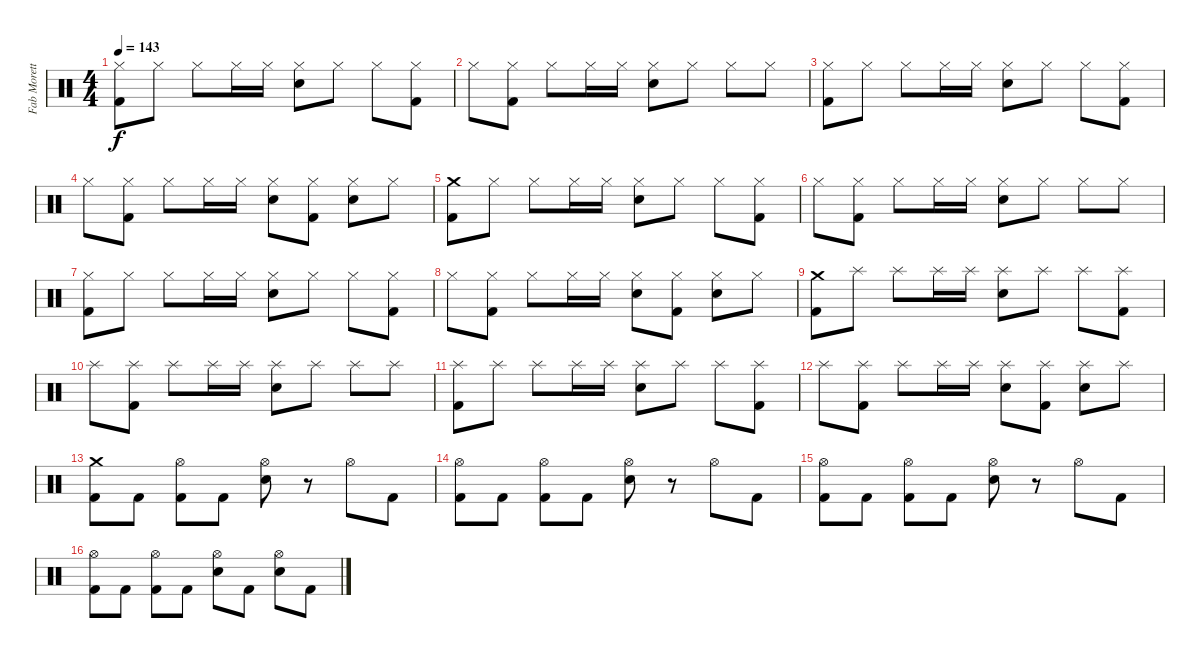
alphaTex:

\track ("Fab Moretti" "Fab Morett") {instrument percussion}
\staff {score}
\articulation defaults
\ts (4 4)
\tempo 143
\clef neutral
\ks c
("Hi-Hat (closed)" "Kick (hit) 2").8{dy f} "Hi-Hat (closed)".8 "Hi-Hat (closed)".8 "Hi-Hat (closed)".16 "Hi-Hat (closed)".16 ("Hi-Hat (closed)" "Electric Snare (hit)").8 "Hi-Hat (closed)".8 "Hi-Hat (closed)".8 ("Hi-Hat (closed)" "Kick (hit) 2").8 |
"Hi-Hat (closed)".8 ("Hi-Hat (closed)" "Kick (hit) 2").8 "Hi-Hat (closed)".8 "Hi-Hat (closed)".16 "Hi-Hat (closed)".16 ("Hi-Hat (closed)" "Electric Snare (hit)").8 "Hi-Hat (closed)".8 "Hi-Hat (closed)".8 "Hi-Hat (closed)".8 |
("Hi-Hat (closed)" "Kick (hit) 2").8 "Hi-Hat (closed)".8 "Hi-Hat (closed)".8 "Hi-Hat (closed)".16 "Hi-Hat (closed)".16 ("Hi-Hat (closed)" "Electric Snare (hit)").8 "Hi-Hat (closed)".8 "Hi-Hat (closed)".8 ("Hi-Hat (closed)" "Kick (hit) 2").8 |
"Hi-Hat (closed)".8 ("Hi-Hat (closed)" "Kick (hit) 2").8 "Hi-Hat (closed)".8 "Hi-Hat (closed)".16 "Hi-Hat (closed)".16 ("Hi-Hat (closed)" "Electric Snare (hit)").8 ("Hi-Hat (closed)" "Kick (hit) 2").8 ("Hi-Hat (closed)" "Electric Snare (hit)").8 "Hi-Hat (closed)".8 |
("Crash medium (hit)" "Kick (hit) 2").8 "Hi-Hat (closed)".8 "Hi-Hat (closed)".8 "Hi-Hat (closed)".16 "Hi-Hat (closed)".16 ("Hi-Hat (closed)" "Electric Snare (hit)").8 "Hi-Hat (closed)".8 "Hi-Hat (closed)".8 ("Hi-Hat (closed)" "Kick (hit) 2").8 |
"Hi-Hat (closed)".8 ("Hi-Hat (closed)" "Kick (hit) 2").8 "Hi-Hat (closed)".8 "Hi-Hat (closed)".16 "Hi-Hat (closed)".16 ("Hi-Hat (closed)" "Electric Snare (hit)").8 "Hi-Hat (closed)".8 "Hi-Hat (closed)".8 "Hi-Hat (closed)".8 |
("Hi-Hat (closed)" "Kick (hit) 2").8 "Hi-Hat (closed)".8 "Hi-Hat (closed)".8 "Hi-Hat (closed)".16 "Hi-Hat (closed)".16 ("Hi-Hat (closed)" "Electric Snare (hit)").8 "Hi-Hat (closed)".8 "Hi-Hat (closed)".8 ("Hi-Hat (closed)" "Kick (hit) 2").8 |
"Hi-Hat (closed)".8 ("Hi-Hat (closed)" "Kick (hit) 2").8 "Hi-Hat (closed)".8 "Hi-Hat (closed)".16 "Hi-Hat (closed)".16 ("Hi-Hat (closed)" "Electric Snare (hit)").8 ("Hi-Hat (closed)" "Kick (hit) 2").8 ("Hi-Hat (closed)" "Electric Snare (hit)").8 "Hi-Hat (closed)".8 |
("Crash medium (hit)" "Kick (hit) 2").8 "Splash (hit)".8 "Splash (hit)".8 "Splash (hit)".16 "Splash (hit)".16 ("Splash (hit)" "Electric Snare (hit)").8 "Splash (hit)".8 "Splash (hit)".8 ("Splash (hit)" "Kick (hit) 2").8 |
"Splash (hit)".8 ("Splash (hit)" "Kick (hit) 2").8 "Splash (hit)".8 "Splash (hit)".16 "Splash (hit)".16 ("Splash (hit)" "Electric Snare (hit)").8 "Splash (hit)".8 "Splash (hit)".8 "Splash (hit)".8 |
("Splash (hit)" "Kick (hit) 2").8 "Splash (hit)".8 "Splash (hit)".8 "Splash (hit)".16 "Splash (hit)".16 ("Splash (hit)" "Electric Snare (hit)").8 "Splash (hit)".8 "Splash (hit)".8 ("Splash (hit)" "Kick (hit) 2").8 |
"Splash (hit)".8 ("Splash (hit)" "Kick (hit) 2").8 "Splash (hit)".8 "Splash (hit)".16 "Splash (hit)".16 ("Splash (hit)" "Electric Snare (hit)").8 ("Splash (hit)" "Kick (hit) 2").8 ("Splash (hit)" "Electric Snare (hit)").8 "Splash (hit)".8 |
("Crash medium (hit)" "Kick (hit) 2").8 "Kick (hit) 2".8 ("Hi-Hat (open)" "Kick (hit) 2").8 "Kick (hit) 2".8 ("Hi-Hat (open)" "Electric Snare (hit)").8 r.8 "Hi-Hat (open)".8 "Kick (hit) 2".8 |
("Hi-Hat (open)" "Kick (hit) 2").8 "Kick (hit) 2".8 ("Hi-Hat (open)" "Kick (hit) 2").8 "Kick (hit) 2".8 ("Hi-Hat (open)" "Electric Snare (hit)").8 r.8 "Hi-Hat (open)".8 "Kick (hit) 2".8 |
("Hi-Hat (open)" "Kick (hit) 2").8 "Kick (hit) 2".8 ("Hi-Hat (open)" "Kick (hit) 2").8 "Kick (hit) 2".8 ("Hi-Hat (open)" "Electric Snare (hit)").8 r.8 "Hi-Hat (open)".8 "Kick (hit) 2".8 |
("Hi-Hat (open)" "Kick (hit) 2").8 "Kick (hit) 2".8 ("Hi-Hat (open)" "Kick (hit) 2").8 "Kick (hit) 2".8 ("Hi-Hat (open)" "Electric Snare (hit)").8 "Kick (hit) 2".8 ("Hi-Hat (open)" "Electric Snare (hit)").8 "Kick (hit) 2".8
